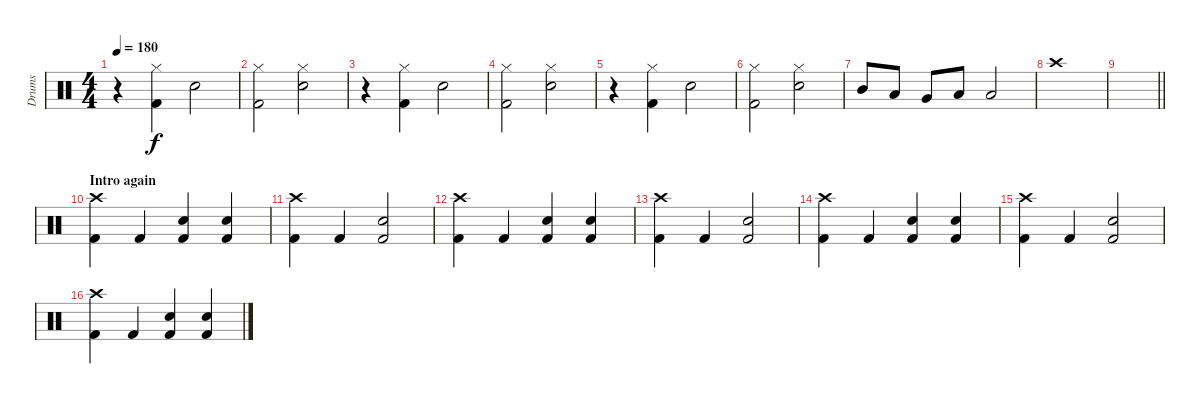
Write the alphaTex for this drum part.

\track ("Drums" "Drums") {instrument percussion}
\staff {score}
\articulation defaults
\ts (4 4)
\tempo 180
\clef neutral
\ks c
r.4{dy f} ("Kick (hit) 2" "Hi-Hat (closed)").4 "Electric Snare (hit)".2 |
("Hi-Hat (closed)" "Kick (hit) 2").2 ("Hi-Hat (closed)" "Electric Snare (hit)").2 |
r.4 ("Kick (hit) 2" "Hi-Hat (closed)").4 "Electric Snare (hit)".2 |
("Hi-Hat (closed)" "Kick (hit) 2").2 ("Hi-Hat (closed)" "Electric Snare (hit)").2 |
r.4 ("Kick (hit) 2" "Hi-Hat (closed)").4 "Electric Snare (hit)".2 |
("Hi-Hat (closed)" "Kick (hit) 2").2 ("Hi-Hat (closed)" "Electric Snare (hit)").2 |
"Mid Tom (hit)".8 "Low Tom (hit)".8 "Very Low Tom (hit)".8 "Low Floor Tom (hit)".8 "Low Floor Tom (hit)".2 |
"Crash high (hit)".1 |
\barLineRight lightlight
|
\section ("" "Intro again")
("Kick (hit) 2" "Crash high (hit)").4 "Kick (hit) 2".4 ("Electric Snare (hit)" "Kick (hit) 2").4 ("Electric Snare (hit)" "Kick (hit) 2").4 |
("Kick (hit) 2" "Crash high (hit)").4 "Kick (hit) 2".4 ("Electric Snare (hit)" "Kick (hit) 2").2 |
("Kick (hit) 2" "Crash high (hit)").4 "Kick (hit) 2".4 ("Electric Snare (hit)" "Kick (hit) 2").4 ("Electric Snare (hit)" "Kick (hit) 2").4 |
("Kick (hit) 2" "Crash high (hit)").4 "Kick (hit) 2".4 ("Electric Snare (hit)" "Kick (hit) 2").2 |
("Kick (hit) 2" "Crash high (hit)").4 "Kick (hit) 2".4 ("Electric Snare (hit)" "Kick (hit) 2").4 ("Electric Snare (hit)" "Kick (hit) 2").4 |
("Kick (hit) 2" "Crash high (hit)").4 "Kick (hit) 2".4 ("Electric Snare (hit)" "Kick (hit) 2").2 |
("Kick (hit) 2" "Crash high (hit)").4 "Kick (hit) 2".4 ("Electric Snare (hit)" "Kick (hit) 2").4 ("Electric Snare (hit)" "Kick (hit) 2").4
